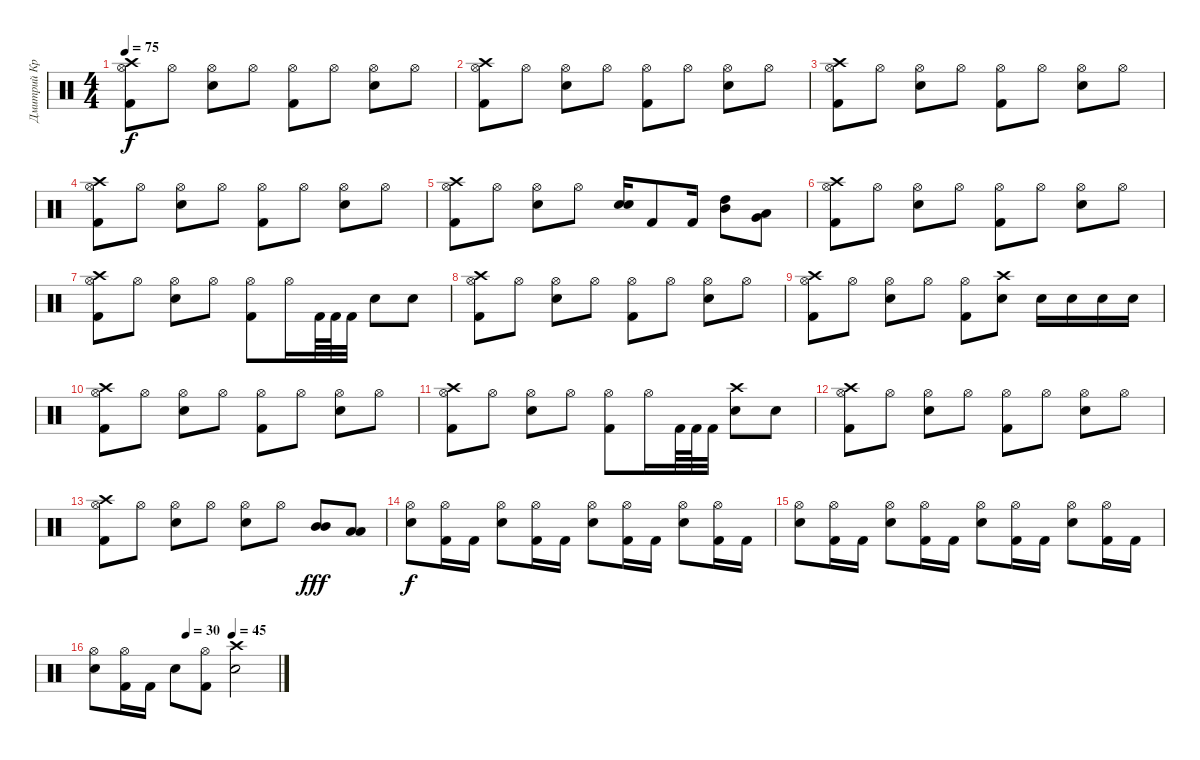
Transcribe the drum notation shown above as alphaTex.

\track ("Дмитрий Кривенков" "Дмитрий Кр") {instrument percussion}
\staff {score}
\articulation defaults
\ts (4 4)
\tempo 75
\clef neutral
\ks c
("Crash high (hit)" "Hi-Hat (open)" "Kick (hit) 2").8{dy f} "Hi-Hat (open)".8 ("Hi-Hat (open)" "Electric Snare (hit)").8 "Hi-Hat (open)".8 ("Hi-Hat (open)" "Kick (hit) 2").8 "Hi-Hat (open)".8 ("Hi-Hat (open)" "Electric Snare (hit)").8 "Hi-Hat (open)".8 |
("Crash high (hit)" "Hi-Hat (open)" "Kick (hit) 2").8 "Hi-Hat (open)".8 ("Hi-Hat (open)" "Electric Snare (hit)").8 "Hi-Hat (open)".8 ("Hi-Hat (open)" "Kick (hit) 2").8 "Hi-Hat (open)".8 ("Hi-Hat (open)" "Electric Snare (hit)").8 "Hi-Hat (open)".8 |
("Crash high (hit)" "Hi-Hat (open)" "Kick (hit) 2").8 "Hi-Hat (open)".8 ("Hi-Hat (open)" "Electric Snare (hit)").8 "Hi-Hat (open)".8 ("Hi-Hat (open)" "Kick (hit) 2").8 "Hi-Hat (open)".8 ("Hi-Hat (open)" "Electric Snare (hit)").8 "Hi-Hat (open)".8 |
("Crash high (hit)" "Hi-Hat (open)" "Kick (hit) 2").8 "Hi-Hat (open)".8 ("Hi-Hat (open)" "Electric Snare (hit)").8 "Hi-Hat (open)".8 ("Hi-Hat (open)" "Kick (hit) 2").8 "Hi-Hat (open)".8 ("Hi-Hat (open)" "Electric Snare (hit)").8 "Hi-Hat (open)".8 |
("Crash high (hit)" "Hi-Hat (open)" "Kick (hit) 2").8 "Hi-Hat (open)".8 ("Hi-Hat (open)" "Electric Snare (hit)").8 "Hi-Hat (open)".8 ("Electric Snare (hit)" "Snare (hit) 2").16 "Kick (hit) 2".8 "Kick (hit) 2".16 ("High Tom (hit)" "Mid Tom (hit)").8 ("Low Tom (hit)" "Very Low Tom (hit)").8 |
("Crash high (hit)" "Hi-Hat (open)" "Kick (hit) 2").8 "Hi-Hat (open)".8 ("Hi-Hat (open)" "Electric Snare (hit)").8 "Hi-Hat (open)".8 ("Hi-Hat (open)" "Kick (hit) 2").8 "Hi-Hat (open)".8 ("Hi-Hat (open)" "Electric Snare (hit)").8 "Hi-Hat (open)".8 |
("Crash high (hit)" "Hi-Hat (open)" "Kick (hit) 2").8 "Hi-Hat (open)".8 ("Hi-Hat (open)" "Electric Snare (hit)").8 "Hi-Hat (open)".8 ("Hi-Hat (open)" "Kick (hit) 2").8 "Hi-Hat (open)".16 "Kick (hit) 2".64 "Kick (hit) 2".64 "Kick (hit) 2".32 "Electric Snare (hit)".8 "Electric Snare (hit)".8 |
("Crash high (hit)" "Hi-Hat (open)" "Kick (hit) 2").8 "Hi-Hat (open)".8 ("Hi-Hat (open)" "Electric Snare (hit)").8 "Hi-Hat (open)".8 ("Hi-Hat (open)" "Kick (hit) 2").8 "Hi-Hat (open)".8 ("Hi-Hat (open)" "Electric Snare (hit)").8 "Hi-Hat (open)".8 |
("Crash high (hit)" "Hi-Hat (open)" "Kick (hit) 2").8 "Hi-Hat (open)".8 ("Hi-Hat (open)" "Electric Snare (hit)").8 "Hi-Hat (open)".8 ("Hi-Hat (open)" "Kick (hit) 2").8 ("Crash high (hit)" "Electric Snare (hit)").8 "Electric Snare (hit)".16 "Electric Snare (hit)".16 "Electric Snare (hit)".16 "Electric Snare (hit)".16 |
("Crash high (hit)" "Hi-Hat (open)" "Kick (hit) 2").8 "Hi-Hat (open)".8 ("Hi-Hat (open)" "Electric Snare (hit)").8 "Hi-Hat (open)".8 ("Hi-Hat (open)" "Kick (hit) 2").8 "Hi-Hat (open)".8 ("Hi-Hat (open)" "Electric Snare (hit)").8 "Hi-Hat (open)".8 |
("Crash high (hit)" "Hi-Hat (open)" "Kick (hit) 2").8 "Hi-Hat (open)".8 ("Hi-Hat (open)" "Electric Snare (hit)").8 "Hi-Hat (open)".8 ("Hi-Hat (open)" "Kick (hit) 2").8 "Hi-Hat (open)".16 "Kick (hit) 2".64 "Kick (hit) 2".64 "Kick (hit) 2".32 ("Crash high (hit)" "Electric Snare (hit)").8 "Electric Snare (hit)".8 |
("Crash high (hit)" "Hi-Hat (open)" "Kick (hit) 2").8 "Hi-Hat (open)".8 ("Hi-Hat (open)" "Electric Snare (hit)").8 "Hi-Hat (open)".8 ("Hi-Hat (open)" "Kick (hit) 2").8 "Hi-Hat (open)".8 ("Hi-Hat (open)" "Electric Snare (hit)").8 "Hi-Hat (open)".8 |
("Crash high (hit)" "Hi-Hat (open)" "Kick (hit) 2").8 "Hi-Hat (open)".8 ("Hi-Hat (open)" "Electric Snare (hit)").8 "Hi-Hat (open)".8 ("Hi-Hat (open)" "Electric Snare (hit)").8 "Hi-Hat (open)".8 ("Mid Tom (hit)" "Mid Tom (hit)").8{dy fff} ("Low Tom (hit)" "Low Tom (hit)").8 |
("Hi-Hat (open)" "Electric Snare (hit)").8{dy f} ("Hi-Hat (open)" "Kick (hit) 2").16 "Kick (hit) 2".16 ("Hi-Hat (open)" "Electric Snare (hit)").8 ("Hi-Hat (open)" "Kick (hit) 2").16 "Kick (hit) 2".16 ("Hi-Hat (open)" "Electric Snare (hit)").8 ("Hi-Hat (open)" "Kick (hit) 2").16 "Kick (hit) 2".16 ("Hi-Hat (open)" "Electric Snare (hit)").8 ("Hi-Hat (open)" "Kick (hit) 2").16 "Kick (hit) 2".16 |
("Hi-Hat (open)" "Electric Snare (hit)").8 ("Hi-Hat (open)" "Kick (hit) 2").16 "Kick (hit) 2".16 ("Hi-Hat (open)" "Electric Snare (hit)").8 ("Hi-Hat (open)" "Kick (hit) 2").16 "Kick (hit) 2".16 ("Hi-Hat (open)" "Electric Snare (hit)").8 ("Hi-Hat (open)" "Kick (hit) 2").16 "Kick (hit) 2".16 ("Hi-Hat (open)" "Electric Snare (hit)").8 ("Hi-Hat (open)" "Kick (hit) 2").16 "Kick (hit) 2".16 |
\tempo (30 0.5)
\tempo (45 0.75)
("Hi-Hat (open)" "Electric Snare (hit)").8 ("Hi-Hat (open)" "Kick (hit) 2").16 "Kick (hit) 2".16 "Electric Snare (hit)".8 ("Hi-Hat (open)" "Kick (hit) 2").8 ("Crash high (hit)" "Electric Snare (hit)").2
